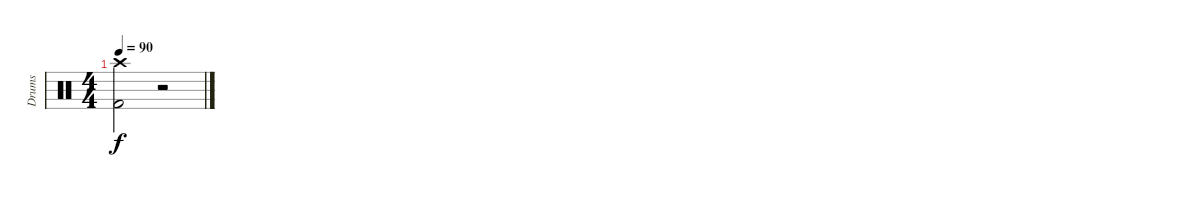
\track ("Drums" "Drums") {instrument percussion}
\staff {score}
\articulation defaults
\ts (4 4)
\tempo 90
\clef neutral
\ks c
("Crash high (hit)" "Kick (hit) 2").2{dy f} r.2
